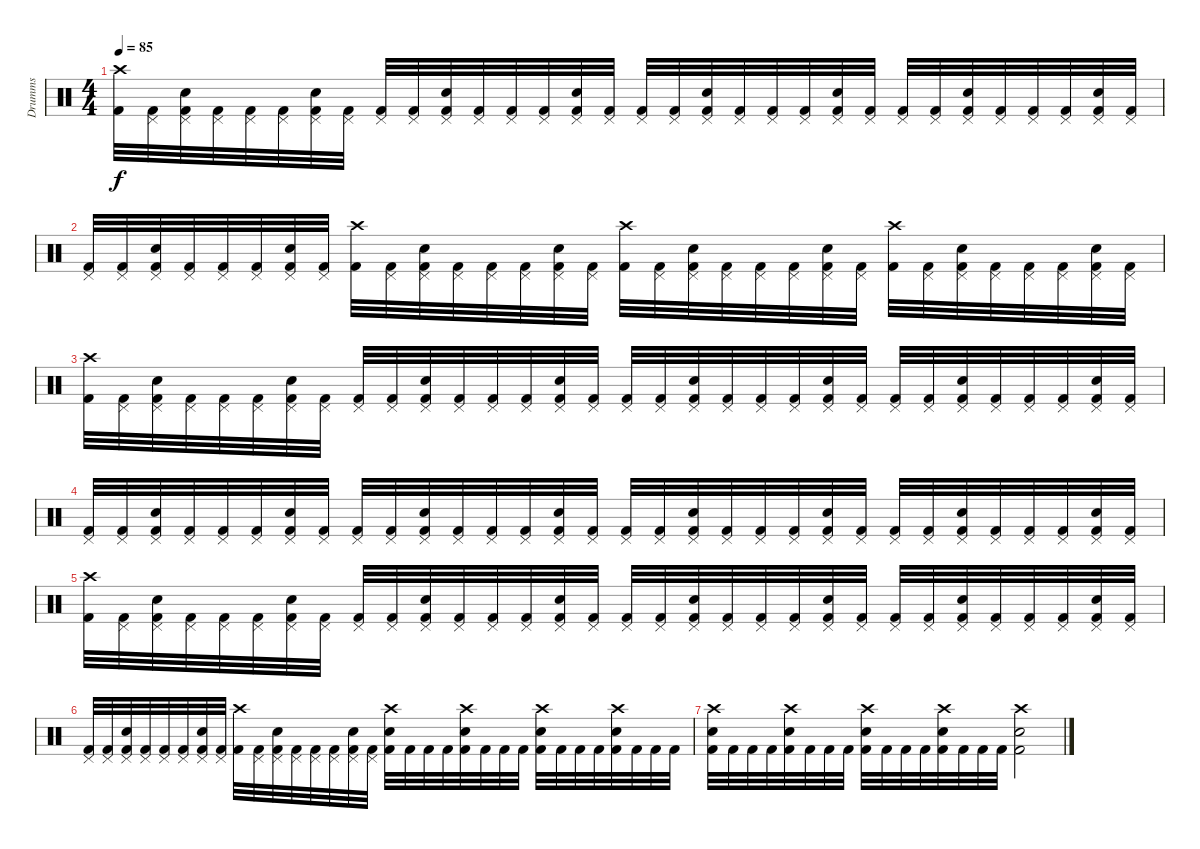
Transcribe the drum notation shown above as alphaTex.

\track ("Drumms" "Drumms") {instrument percussion}
\staff {score}
\articulation defaults
\ts (4 4)
\tempo 85
\clef neutral
\ks c
("Crash high (hit)" "Kick (hit) 2").32{dy f} ("Pedal Hi-Hat (hit)" "Kick (hit) 2").32 ("Pedal Hi-Hat (hit)" "Snare (hit) 2" "Kick (hit) 2").32 ("Pedal Hi-Hat (hit)" "Kick (hit) 2").32 ("Pedal Hi-Hat (hit)" "Kick (hit) 2").32 ("Pedal Hi-Hat (hit)" "Kick (hit) 2").32 ("Pedal Hi-Hat (hit)" "Snare (hit) 2" "Kick (hit) 2").32 ("Pedal Hi-Hat (hit)" "Kick (hit) 2").32 ("Pedal Hi-Hat (hit)" "Kick (hit) 2").32 ("Pedal Hi-Hat (hit)" "Kick (hit) 2").32 ("Pedal Hi-Hat (hit)" "Snare (hit) 2" "Kick (hit) 2").32 ("Pedal Hi-Hat (hit)" "Kick (hit) 2").32 ("Pedal Hi-Hat (hit)" "Kick (hit) 2").32 ("Pedal Hi-Hat (hit)" "Kick (hit) 2").32 ("Pedal Hi-Hat (hit)" "Snare (hit) 2" "Kick (hit) 2").32 ("Pedal Hi-Hat (hit)" "Kick (hit) 2").32 ("Pedal Hi-Hat (hit)" "Kick (hit) 2").32 ("Pedal Hi-Hat (hit)" "Kick (hit) 2").32 ("Pedal Hi-Hat (hit)" "Snare (hit) 2" "Kick (hit) 2").32 ("Pedal Hi-Hat (hit)" "Kick (hit) 2").32 ("Pedal Hi-Hat (hit)" "Kick (hit) 2").32 ("Pedal Hi-Hat (hit)" "Kick (hit) 2").32 ("Pedal Hi-Hat (hit)" "Snare (hit) 2" "Kick (hit) 2").32 ("Pedal Hi-Hat (hit)" "Kick (hit) 2").32 ("Pedal Hi-Hat (hit)" "Kick (hit) 2").32 ("Pedal Hi-Hat (hit)" "Kick (hit) 2").32 ("Pedal Hi-Hat (hit)" "Snare (hit) 2" "Kick (hit) 2").32 ("Pedal Hi-Hat (hit)" "Kick (hit) 2").32 ("Pedal Hi-Hat (hit)" "Kick (hit) 2").32 ("Pedal Hi-Hat (hit)" "Kick (hit) 2").32 ("Pedal Hi-Hat (hit)" "Snare (hit) 2" "Kick (hit) 2").32 ("Pedal Hi-Hat (hit)" "Kick (hit) 2").32 |
("Pedal Hi-Hat (hit)" "Kick (hit) 2").32 ("Pedal Hi-Hat (hit)" "Kick (hit) 2").32 ("Pedal Hi-Hat (hit)" "Snare (hit) 2" "Kick (hit) 2").32 ("Pedal Hi-Hat (hit)" "Kick (hit) 2").32 ("Pedal Hi-Hat (hit)" "Kick (hit) 2").32 ("Pedal Hi-Hat (hit)" "Kick (hit) 2").32 ("Pedal Hi-Hat (hit)" "Snare (hit) 2" "Kick (hit) 2").32 ("Pedal Hi-Hat (hit)" "Kick (hit) 2").32 ("Crash high (hit)" "Kick (hit) 2").32 ("Pedal Hi-Hat (hit)" "Kick (hit) 2").32 ("Pedal Hi-Hat (hit)" "Snare (hit) 2" "Kick (hit) 2").32 ("Pedal Hi-Hat (hit)" "Kick (hit) 2").32 ("Pedal Hi-Hat (hit)" "Kick (hit) 2").32 ("Pedal Hi-Hat (hit)" "Kick (hit) 2").32 ("Pedal Hi-Hat (hit)" "Snare (hit) 2" "Kick (hit) 2").32 ("Pedal Hi-Hat (hit)" "Kick (hit) 2").32 ("Crash high (hit)" "Kick (hit) 2").32 ("Pedal Hi-Hat (hit)" "Kick (hit) 2").32 ("Pedal Hi-Hat (hit)" "Snare (hit) 2" "Kick (hit) 2").32 ("Pedal Hi-Hat (hit)" "Kick (hit) 2").32 ("Pedal Hi-Hat (hit)" "Kick (hit) 2").32 ("Pedal Hi-Hat (hit)" "Kick (hit) 2").32 ("Pedal Hi-Hat (hit)" "Snare (hit) 2" "Kick (hit) 2").32 ("Pedal Hi-Hat (hit)" "Kick (hit) 2").32 ("Crash high (hit)" "Kick (hit) 2").32 ("Pedal Hi-Hat (hit)" "Kick (hit) 2").32 ("Pedal Hi-Hat (hit)" "Snare (hit) 2" "Kick (hit) 2").32 ("Pedal Hi-Hat (hit)" "Kick (hit) 2").32 ("Pedal Hi-Hat (hit)" "Kick (hit) 2").32 ("Pedal Hi-Hat (hit)" "Kick (hit) 2").32 ("Pedal Hi-Hat (hit)" "Snare (hit) 2" "Kick (hit) 2").32 ("Pedal Hi-Hat (hit)" "Kick (hit) 2").32 |
("Crash high (hit)" "Kick (hit) 2").32 ("Pedal Hi-Hat (hit)" "Kick (hit) 2").32 ("Pedal Hi-Hat (hit)" "Snare (hit) 2" "Kick (hit) 2").32 ("Pedal Hi-Hat (hit)" "Kick (hit) 2").32 ("Pedal Hi-Hat (hit)" "Kick (hit) 2").32 ("Pedal Hi-Hat (hit)" "Kick (hit) 2").32 ("Pedal Hi-Hat (hit)" "Snare (hit) 2" "Kick (hit) 2").32 ("Pedal Hi-Hat (hit)" "Kick (hit) 2").32 ("Pedal Hi-Hat (hit)" "Kick (hit) 2").32 ("Pedal Hi-Hat (hit)" "Kick (hit) 2").32 ("Pedal Hi-Hat (hit)" "Snare (hit) 2" "Kick (hit) 2").32 ("Pedal Hi-Hat (hit)" "Kick (hit) 2").32 ("Pedal Hi-Hat (hit)" "Kick (hit) 2").32 ("Pedal Hi-Hat (hit)" "Kick (hit) 2").32 ("Pedal Hi-Hat (hit)" "Snare (hit) 2" "Kick (hit) 2").32 ("Pedal Hi-Hat (hit)" "Kick (hit) 2").32 ("Pedal Hi-Hat (hit)" "Kick (hit) 2").32 ("Pedal Hi-Hat (hit)" "Kick (hit) 2").32 ("Pedal Hi-Hat (hit)" "Snare (hit) 2" "Kick (hit) 2").32 ("Pedal Hi-Hat (hit)" "Kick (hit) 2").32 ("Pedal Hi-Hat (hit)" "Kick (hit) 2").32 ("Pedal Hi-Hat (hit)" "Kick (hit) 2").32 ("Pedal Hi-Hat (hit)" "Snare (hit) 2" "Kick (hit) 2").32 ("Pedal Hi-Hat (hit)" "Kick (hit) 2").32 ("Pedal Hi-Hat (hit)" "Kick (hit) 2").32 ("Pedal Hi-Hat (hit)" "Kick (hit) 2").32 ("Pedal Hi-Hat (hit)" "Snare (hit) 2" "Kick (hit) 2").32 ("Pedal Hi-Hat (hit)" "Kick (hit) 2").32 ("Pedal Hi-Hat (hit)" "Kick (hit) 2").32 ("Pedal Hi-Hat (hit)" "Kick (hit) 2").32 ("Pedal Hi-Hat (hit)" "Snare (hit) 2" "Kick (hit) 2").32 ("Pedal Hi-Hat (hit)" "Kick (hit) 2").32 |
("Pedal Hi-Hat (hit)" "Kick (hit) 2").32 ("Pedal Hi-Hat (hit)" "Kick (hit) 2").32 ("Pedal Hi-Hat (hit)" "Snare (hit) 2" "Kick (hit) 2").32 ("Pedal Hi-Hat (hit)" "Kick (hit) 2").32 ("Pedal Hi-Hat (hit)" "Kick (hit) 2").32 ("Pedal Hi-Hat (hit)" "Kick (hit) 2").32 ("Pedal Hi-Hat (hit)" "Snare (hit) 2" "Kick (hit) 2").32 ("Pedal Hi-Hat (hit)" "Kick (hit) 2").32 ("Pedal Hi-Hat (hit)" "Kick (hit) 2").32 ("Pedal Hi-Hat (hit)" "Kick (hit) 2").32 ("Pedal Hi-Hat (hit)" "Snare (hit) 2" "Kick (hit) 2").32 ("Pedal Hi-Hat (hit)" "Kick (hit) 2").32 ("Pedal Hi-Hat (hit)" "Kick (hit) 2").32 ("Pedal Hi-Hat (hit)" "Kick (hit) 2").32 ("Pedal Hi-Hat (hit)" "Snare (hit) 2" "Kick (hit) 2").32 ("Pedal Hi-Hat (hit)" "Kick (hit) 2").32 ("Pedal Hi-Hat (hit)" "Kick (hit) 2").32 ("Pedal Hi-Hat (hit)" "Kick (hit) 2").32 ("Pedal Hi-Hat (hit)" "Snare (hit) 2" "Kick (hit) 2").32 ("Pedal Hi-Hat (hit)" "Kick (hit) 2").32 ("Pedal Hi-Hat (hit)" "Kick (hit) 2").32 ("Pedal Hi-Hat (hit)" "Kick (hit) 2").32 ("Pedal Hi-Hat (hit)" "Snare (hit) 2" "Kick (hit) 2").32 ("Pedal Hi-Hat (hit)" "Kick (hit) 2").32 ("Pedal Hi-Hat (hit)" "Kick (hit) 2").32 ("Pedal Hi-Hat (hit)" "Kick (hit) 2").32 ("Pedal Hi-Hat (hit)" "Snare (hit) 2" "Kick (hit) 2").32 ("Pedal Hi-Hat (hit)" "Kick (hit) 2").32 ("Pedal Hi-Hat (hit)" "Kick (hit) 2").32 ("Pedal Hi-Hat (hit)" "Kick (hit) 2").32 ("Pedal Hi-Hat (hit)" "Snare (hit) 2" "Kick (hit) 2").32 ("Pedal Hi-Hat (hit)" "Kick (hit) 2").32 |
("Crash high (hit)" "Kick (hit) 2").32 ("Pedal Hi-Hat (hit)" "Kick (hit) 2").32 ("Pedal Hi-Hat (hit)" "Snare (hit) 2" "Kick (hit) 2").32 ("Pedal Hi-Hat (hit)" "Kick (hit) 2").32 ("Pedal Hi-Hat (hit)" "Kick (hit) 2").32 ("Pedal Hi-Hat (hit)" "Kick (hit) 2").32 ("Pedal Hi-Hat (hit)" "Snare (hit) 2" "Kick (hit) 2").32 ("Pedal Hi-Hat (hit)" "Kick (hit) 2").32 ("Pedal Hi-Hat (hit)" "Kick (hit) 2").32 ("Pedal Hi-Hat (hit)" "Kick (hit) 2").32 ("Pedal Hi-Hat (hit)" "Snare (hit) 2" "Kick (hit) 2").32 ("Pedal Hi-Hat (hit)" "Kick (hit) 2").32 ("Pedal Hi-Hat (hit)" "Kick (hit) 2").32 ("Pedal Hi-Hat (hit)" "Kick (hit) 2").32 ("Pedal Hi-Hat (hit)" "Snare (hit) 2" "Kick (hit) 2").32 ("Pedal Hi-Hat (hit)" "Kick (hit) 2").32 ("Pedal Hi-Hat (hit)" "Kick (hit) 2").32 ("Pedal Hi-Hat (hit)" "Kick (hit) 2").32 ("Pedal Hi-Hat (hit)" "Snare (hit) 2" "Kick (hit) 2").32 ("Pedal Hi-Hat (hit)" "Kick (hit) 2").32 ("Pedal Hi-Hat (hit)" "Kick (hit) 2").32 ("Pedal Hi-Hat (hit)" "Kick (hit) 2").32 ("Pedal Hi-Hat (hit)" "Snare (hit) 2" "Kick (hit) 2").32 ("Pedal Hi-Hat (hit)" "Kick (hit) 2").32 ("Pedal Hi-Hat (hit)" "Kick (hit) 2").32 ("Pedal Hi-Hat (hit)" "Kick (hit) 2").32 ("Pedal Hi-Hat (hit)" "Snare (hit) 2" "Kick (hit) 2").32 ("Pedal Hi-Hat (hit)" "Kick (hit) 2").32 ("Pedal Hi-Hat (hit)" "Kick (hit) 2").32 ("Pedal Hi-Hat (hit)" "Kick (hit) 2").32 ("Pedal Hi-Hat (hit)" "Snare (hit) 2" "Kick (hit) 2").32 ("Pedal Hi-Hat (hit)" "Kick (hit) 2").32 |
("Pedal Hi-Hat (hit)" "Kick (hit) 2").32 ("Pedal Hi-Hat (hit)" "Kick (hit) 2").32 ("Pedal Hi-Hat (hit)" "Snare (hit) 2" "Kick (hit) 2").32 ("Pedal Hi-Hat (hit)" "Kick (hit) 2").32 ("Pedal Hi-Hat (hit)" "Kick (hit) 2").32 ("Pedal Hi-Hat (hit)" "Kick (hit) 2").32 ("Pedal Hi-Hat (hit)" "Snare (hit) 2" "Kick (hit) 2").32 ("Pedal Hi-Hat (hit)" "Kick (hit) 2").32 ("Crash high (hit)" "Kick (hit) 2").32 ("Pedal Hi-Hat (hit)" "Kick (hit) 2").32 ("Pedal Hi-Hat (hit)" "Snare (hit) 2" "Kick (hit) 2").32 ("Pedal Hi-Hat (hit)" "Kick (hit) 2").32 ("Pedal Hi-Hat (hit)" "Kick (hit) 2").32 ("Pedal Hi-Hat (hit)" "Kick (hit) 2").32 ("Pedal Hi-Hat (hit)" "Snare (hit) 2" "Kick (hit) 2").32 ("Pedal Hi-Hat (hit)" "Kick (hit) 2").32 ("Crash high (hit)" "Snare (hit) 2" "Kick (hit) 2").32 "Kick (hit) 2".32 "Kick (hit) 2".32 "Kick (hit) 2".32 ("Crash high (hit)" "Snare (hit) 2" "Kick (hit) 2").32 "Kick (hit) 2".32 "Kick (hit) 2".32 "Kick (hit) 2".32 ("Crash high (hit)" "Snare (hit) 2" "Kick (hit) 2").32 "Kick (hit) 2".32 "Kick (hit) 2".32 "Kick (hit) 2".32 ("Crash high (hit)" "Snare (hit) 2" "Kick (hit) 2").32 "Kick (hit) 2".32 "Kick (hit) 2".32 "Kick (hit) 2".32 |
("Crash high (hit)" "Snare (hit) 2" "Kick (hit) 2").32 "Kick (hit) 2".32 "Kick (hit) 2".32 "Kick (hit) 2".32 ("Crash high (hit)" "Snare (hit) 2" "Kick (hit) 2").32 "Kick (hit) 2".32 "Kick (hit) 2".32 "Kick (hit) 2".32 ("Crash high (hit)" "Snare (hit) 2" "Kick (hit) 2").32 "Kick (hit) 2".32 "Kick (hit) 2".32 "Kick (hit) 2".32 ("Crash high (hit)" "Snare (hit) 2" "Kick (hit) 2").32 "Kick (hit) 2".32 "Kick (hit) 2".32 "Kick (hit) 2".32 ("Crash high (hit)" "Snare (hit) 2" "Kick (hit) 2").2
